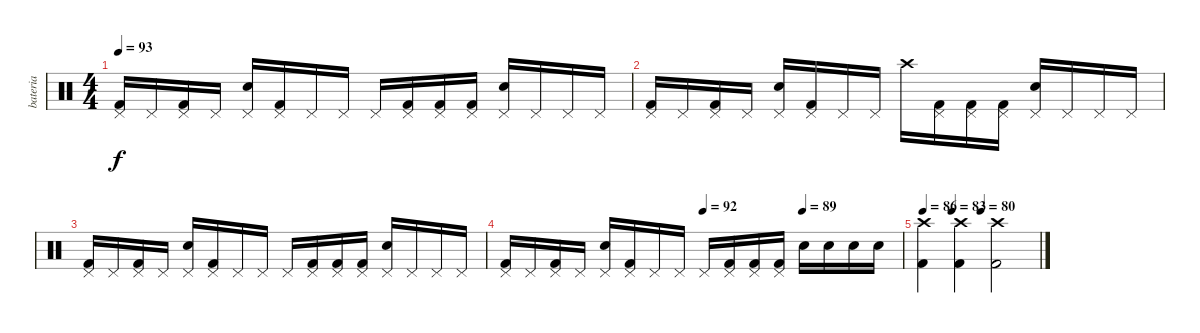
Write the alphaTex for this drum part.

\track ("bateria" "bateria") {instrument percussion}
\staff {score}
\articulation defaults
\ts (4 4)
\tempo 93
\clef neutral
\ks c
("Kick (hit) 2" "Pedal Hi-Hat (hit)").16{dy f} "Pedal Hi-Hat (hit)".16 ("Kick (hit) 2" "Pedal Hi-Hat (hit)").16 "Pedal Hi-Hat (hit)".16 ("Snare (hit) 2" "Pedal Hi-Hat (hit)").16 ("Kick (hit) 2" "Pedal Hi-Hat (hit)").16 "Pedal Hi-Hat (hit)".16 "Pedal Hi-Hat (hit)".16 "Pedal Hi-Hat (hit)".16 ("Kick (hit) 2" "Pedal Hi-Hat (hit)").16 ("Kick (hit) 2" "Pedal Hi-Hat (hit)").16 ("Kick (hit) 2" "Pedal Hi-Hat (hit)").16 ("Snare (hit) 2" "Pedal Hi-Hat (hit)").16 "Pedal Hi-Hat (hit)".16 "Pedal Hi-Hat (hit)".16 "Pedal Hi-Hat (hit)".16 |
("Kick (hit) 2" "Pedal Hi-Hat (hit)").16 "Pedal Hi-Hat (hit)".16 ("Kick (hit) 2" "Pedal Hi-Hat (hit)").16 "Pedal Hi-Hat (hit)".16 ("Snare (hit) 2" "Pedal Hi-Hat (hit)").16 ("Kick (hit) 2" "Pedal Hi-Hat (hit)").16 "Pedal Hi-Hat (hit)".16 "Pedal Hi-Hat (hit)".16 "Crash high (hit)".16 ("Kick (hit) 2" "Pedal Hi-Hat (hit)").16 ("Kick (hit) 2" "Pedal Hi-Hat (hit)").16 ("Kick (hit) 2" "Pedal Hi-Hat (hit)").16 ("Snare (hit) 2" "Pedal Hi-Hat (hit)").16 "Pedal Hi-Hat (hit)".16 "Pedal Hi-Hat (hit)".16 "Pedal Hi-Hat (hit)".16 |
("Kick (hit) 2" "Pedal Hi-Hat (hit)").16 "Pedal Hi-Hat (hit)".16 ("Kick (hit) 2" "Pedal Hi-Hat (hit)").16 "Pedal Hi-Hat (hit)".16 ("Snare (hit) 2" "Pedal Hi-Hat (hit)").16 ("Kick (hit) 2" "Pedal Hi-Hat (hit)").16 "Pedal Hi-Hat (hit)".16 "Pedal Hi-Hat (hit)".16 "Pedal Hi-Hat (hit)".16 ("Kick (hit) 2" "Pedal Hi-Hat (hit)").16 ("Kick (hit) 2" "Pedal Hi-Hat (hit)").16 ("Kick (hit) 2" "Pedal Hi-Hat (hit)").16 ("Snare (hit) 2" "Pedal Hi-Hat (hit)").16 "Pedal Hi-Hat (hit)".16 "Pedal Hi-Hat (hit)".16 "Pedal Hi-Hat (hit)".16 |
\tempo (92 0.5)
\tempo (89 0.75)
("Kick (hit) 2" "Pedal Hi-Hat (hit)").16 "Pedal Hi-Hat (hit)".16 ("Kick (hit) 2" "Pedal Hi-Hat (hit)").16 "Pedal Hi-Hat (hit)".16 ("Snare (hit) 2" "Pedal Hi-Hat (hit)").16 ("Kick (hit) 2" "Pedal Hi-Hat (hit)").16 "Pedal Hi-Hat (hit)".16 "Pedal Hi-Hat (hit)".16 "Pedal Hi-Hat (hit)".16 ("Kick (hit) 2" "Pedal Hi-Hat (hit)").16 ("Kick (hit) 2" "Pedal Hi-Hat (hit)").16 ("Kick (hit) 2" "Pedal Hi-Hat (hit)").16 "Snare (hit) 2".16 "Snare (hit) 2".16 "Snare (hit) 2".16 "Snare (hit) 2".16 |
\tempo 86
\tempo (83 0.25)
\tempo (80 0.5)
("Kick (hit) 2" "Crash high (hit)").4 ("Kick (hit) 2" "Crash high (hit)").4 ("Kick (hit) 2" "Crash high (hit)").2
